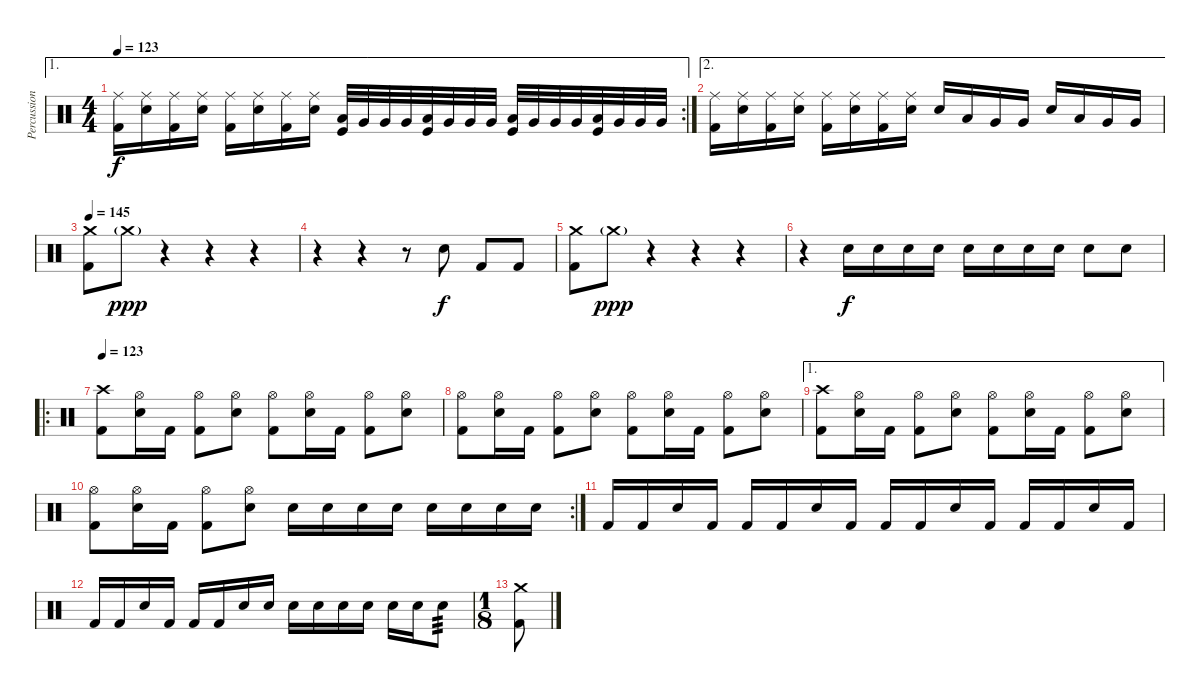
\track ("Percussion" "Percussion") {instrument percussion}
\staff {score}
\articulation defaults
\ae 1
\rc 2
\ts (4 4)
\tempo 123
\clef neutral
\ks c
("Ride (middle)" "Kick (hit) 2").16{dy f} ("Ride (middle)" "Electric Snare (hit)").16 ("Ride (middle)" "Kick (hit) 2").16 ("Ride (middle)" "Electric Snare (hit)").16 ("Ride (middle)" "Kick (hit) 2").16 ("Ride (middle)" "Electric Snare (hit)").16 ("Ride (middle)" "Kick (hit) 2").16 ("Ride (middle)" "Electric Snare (hit)").16 ("Low Tom (hit)" "Kick (hit)").32 "Very Low Tom (hit)".32 "Very Low Tom (hit)".32 "Very Low Tom (hit)".32 ("Low Tom (hit)" "Kick (hit)").32 "Very Low Tom (hit)".32 "Very Low Tom (hit)".32 "Very Low Tom (hit)".32 ("Low Tom (hit)" "Kick (hit)").32 "Very Low Tom (hit)".32 "Very Low Tom (hit)".32 "Very Low Tom (hit)".32 ("Low Tom (hit)" "Kick (hit)").32 "Very Low Tom (hit)".32 "Very Low Tom (hit)".32 "Very Low Tom (hit)".32 |
\ae 2
("Ride (middle)" "Kick (hit) 2").16 ("Ride (middle)" "Electric Snare (hit)").16 ("Ride (middle)" "Kick (hit) 2").16 ("Ride (middle)" "Electric Snare (hit)").16 ("Ride (middle)" "Kick (hit) 2").16 ("Ride (middle)" "Electric Snare (hit)").16 ("Ride (middle)" "Kick (hit) 2").16 ("Ride (middle)" "Electric Snare (hit)").16 "Electric Snare (hit)".16 "Low Tom (hit)".16 "Very Low Tom (hit)".16 "Very Low Tom (hit)".16 "Electric Snare (hit)".16 "Low Tom (hit)".16 "Very Low Tom (hit)".16 "Very Low Tom (hit)".16 |
\tempo 145
("Crash medium (hit)" "Kick (hit) 2").8 "Crash medium (hit)"{g}.8{dy ppp} r.4 r.4 r.4 |
r.4 r.4 r.8 "Electric Snare (hit)".8{dy f} "Kick (hit) 2".8 "Kick (hit) 2".8 |
("Crash medium (hit)" "Kick (hit) 2").8 "Crash medium (hit)"{g}.8{dy ppp} r.4 r.4 r.4 |
r.4 "Electric Snare (hit)".16{dy f} "Electric Snare (hit)".16 "Electric Snare (hit)".16 "Electric Snare (hit)".16 "Electric Snare (hit)".16 "Electric Snare (hit)".16 "Electric Snare (hit)".16 "Electric Snare (hit)".16 "Electric Snare (hit)".8 "Electric Snare (hit)".8 |
\ro
\tempo 123
("Crash high (hit)" "Kick (hit) 2").8 ("Hi-Hat (open)" "Electric Snare (hit)").16 "Kick (hit) 2".16 ("Hi-Hat (open)" "Kick (hit) 2").8 ("Hi-Hat (open)" "Electric Snare (hit)").8 ("Hi-Hat (open)" "Kick (hit) 2").8 ("Hi-Hat (open)" "Electric Snare (hit)").16 "Kick (hit) 2".16 ("Hi-Hat (open)" "Kick (hit) 2").8 ("Hi-Hat (open)" "Electric Snare (hit)").8 |
("Hi-Hat (open)" "Kick (hit) 2").8 ("Hi-Hat (open)" "Electric Snare (hit)").16 "Kick (hit) 2".16 ("Hi-Hat (open)" "Kick (hit) 2").8 ("Hi-Hat (open)" "Electric Snare (hit)").8 ("Hi-Hat (open)" "Kick (hit) 2").8 ("Hi-Hat (open)" "Electric Snare (hit)").16 "Kick (hit) 2".16 ("Hi-Hat (open)" "Kick (hit) 2").8 ("Hi-Hat (open)" "Electric Snare (hit)").8 |
\ae 1
("Crash high (hit)" "Kick (hit) 2").8 ("Hi-Hat (open)" "Electric Snare (hit)").16 "Kick (hit) 2".16 ("Hi-Hat (open)" "Kick (hit) 2").8 ("Hi-Hat (open)" "Electric Snare (hit)").8 ("Hi-Hat (open)" "Kick (hit) 2").8 ("Hi-Hat (open)" "Electric Snare (hit)").16 "Kick (hit) 2".16 ("Hi-Hat (open)" "Kick (hit) 2").8 ("Hi-Hat (open)" "Electric Snare (hit)").8 |
\rc 2
("Hi-Hat (open)" "Kick (hit) 2").8 ("Hi-Hat (open)" "Electric Snare (hit)").16 "Kick (hit) 2".16 ("Hi-Hat (open)" "Kick (hit) 2").8 ("Hi-Hat (open)" "Electric Snare (hit)").8 "Electric Snare (hit)".16 "Electric Snare (hit)".16 "Electric Snare (hit)".16 "Electric Snare (hit)".16 "Electric Snare (hit)".16 "Electric Snare (hit)".16 "Electric Snare (hit)".16 "Electric Snare (hit)".16 |
"Kick (hit) 2".16 "Kick (hit) 2".16 "Electric Snare (hit)".16 "Kick (hit) 2".16 "Kick (hit) 2".16 "Kick (hit) 2".16 "Electric Snare (hit)".16 "Kick (hit) 2".16 "Kick (hit) 2".16 "Kick (hit) 2".16 "Electric Snare (hit)".16 "Kick (hit) 2".16 "Kick (hit) 2".16 "Kick (hit) 2".16 "Electric Snare (hit)".16 "Kick (hit) 2".16 |
"Kick (hit) 2".16 "Kick (hit) 2".16 "Electric Snare (hit)".16 "Kick (hit) 2".16 "Kick (hit) 2".16 "Kick (hit) 2".16 "Electric Snare (hit)".16 "Electric Snare (hit)".16 "Electric Snare (hit)".16 "Electric Snare (hit)".16 "Electric Snare (hit)".16 "Electric Snare (hit)".16 "Electric Snare (hit)".16 "Electric Snare (hit)".16 "Electric Snare (hit)".8{tp 3} |
\ts (1 8)
("Crash medium (hit)" "Kick (hit) 2").8
